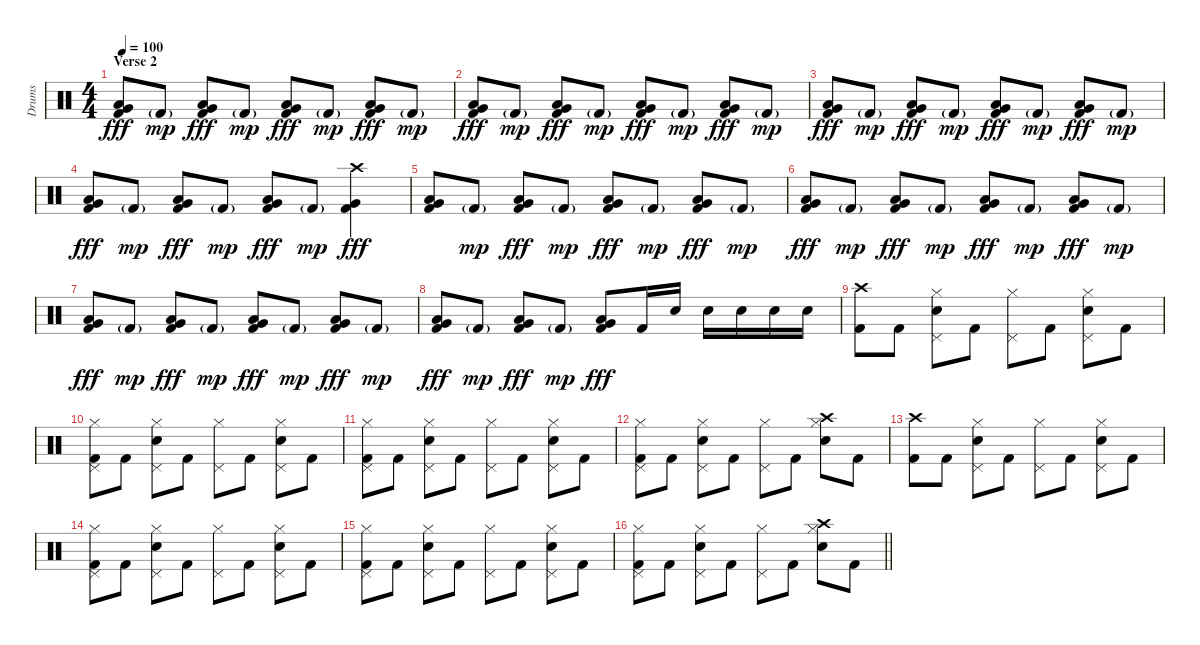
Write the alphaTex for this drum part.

\track ("Drums" "Drums") {instrument percussion}
\staff {score}
\articulation defaults
\ts (4 4)
\section ("" "Verse 2")
\tempo 100
\clef neutral
\ks c
("Low Tom (hit)" "Very Low Tom (hit)" "Kick (hit) 2").8{dy fff} "Kick (hit) 2"{g}.8{dy mp} ("Low Tom (hit)" "Very Low Tom (hit)" "Kick (hit) 2").8{dy fff} "Kick (hit) 2"{g}.8{dy mp} ("Low Tom (hit)" "Very Low Tom (hit)" "Kick (hit) 2").8{dy fff} "Kick (hit) 2"{g}.8{dy mp} ("Low Tom (hit)" "Very Low Tom (hit)" "Kick (hit) 2").8{dy fff} "Kick (hit) 2"{g}.8{dy mp} |
("Low Tom (hit)" "Very Low Tom (hit)" "Kick (hit) 2").8{dy fff} "Kick (hit) 2"{g}.8{dy mp} ("Low Tom (hit)" "Very Low Tom (hit)" "Kick (hit) 2").8{dy fff} "Kick (hit) 2"{g}.8{dy mp} ("Low Tom (hit)" "Very Low Tom (hit)" "Kick (hit) 2").8{dy fff} "Kick (hit) 2"{g}.8{dy mp} ("Low Tom (hit)" "Very Low Tom (hit)" "Kick (hit) 2").8{dy fff} "Kick (hit) 2"{g}.8{dy mp} |
("Low Tom (hit)" "Very Low Tom (hit)" "Kick (hit) 2").8{dy fff} "Kick (hit) 2"{g}.8{dy mp} ("Low Tom (hit)" "Very Low Tom (hit)" "Kick (hit) 2").8{dy fff} "Kick (hit) 2"{g}.8{dy mp} ("Low Tom (hit)" "Very Low Tom (hit)" "Kick (hit) 2").8{dy fff} "Kick (hit) 2"{g}.8{dy mp} ("Low Tom (hit)" "Very Low Tom (hit)" "Kick (hit) 2").8{dy fff} "Kick (hit) 2"{g}.8{dy mp} |
("Low Tom (hit)" "Very Low Tom (hit)" "Kick (hit) 2").8{dy fff} "Kick (hit) 2"{g}.8{dy mp} ("Low Tom (hit)" "Very Low Tom (hit)" "Kick (hit) 2").8{dy fff} "Kick (hit) 2"{g}.8{dy mp} ("Low Tom (hit)" "Very Low Tom (hit)" "Kick (hit) 2").8{dy fff} "Kick (hit) 2"{g}.8{dy mp} ("Crash high (hit)" "Very Low Tom (hit)" "Kick (hit) 2").4{dy fff} |
("Low Tom (hit)" "Very Low Tom (hit)" "Kick (hit) 2").8 "Kick (hit) 2"{g}.8{dy mp} ("Low Tom (hit)" "Very Low Tom (hit)" "Kick (hit) 2").8{dy fff} "Kick (hit) 2"{g}.8{dy mp} ("Low Tom (hit)" "Very Low Tom (hit)" "Kick (hit) 2").8{dy fff} "Kick (hit) 2"{g}.8{dy mp} ("Low Tom (hit)" "Very Low Tom (hit)" "Kick (hit) 2").8{dy fff} "Kick (hit) 2"{g}.8{dy mp} |
("Low Tom (hit)" "Very Low Tom (hit)" "Kick (hit) 2").8{dy fff} "Kick (hit) 2"{g}.8{dy mp} ("Low Tom (hit)" "Very Low Tom (hit)" "Kick (hit) 2").8{dy fff} "Kick (hit) 2"{g}.8{dy mp} ("Low Tom (hit)" "Very Low Tom (hit)" "Kick (hit) 2").8{dy fff} "Kick (hit) 2"{g}.8{dy mp} ("Low Tom (hit)" "Very Low Tom (hit)" "Kick (hit) 2").8{dy fff} "Kick (hit) 2"{g}.8{dy mp} |
("Low Tom (hit)" "Very Low Tom (hit)" "Kick (hit) 2").8{dy fff} "Kick (hit) 2"{g}.8{dy mp} ("Low Tom (hit)" "Very Low Tom (hit)" "Kick (hit) 2").8{dy fff} "Kick (hit) 2"{g}.8{dy mp} ("Low Tom (hit)" "Very Low Tom (hit)" "Kick (hit) 2").8{dy fff} "Kick (hit) 2"{g}.8{dy mp} ("Low Tom (hit)" "Very Low Tom (hit)" "Kick (hit) 2").8{dy fff} "Kick (hit) 2"{g}.8{dy mp} |
("Low Tom (hit)" "Very Low Tom (hit)" "Kick (hit) 2").8{dy fff} "Kick (hit) 2"{g}.8{dy mp} ("Low Tom (hit)" "Very Low Tom (hit)" "Kick (hit) 2").8{dy fff} "Kick (hit) 2"{g}.8{dy mp} ("Low Tom (hit)" "Very Low Tom (hit)" "Kick (hit) 2").8{dy fff} "Kick (hit) 2".16 "Electric Snare (hit)".16 "Electric Snare (hit)".16 "Electric Snare (hit)".16 "Electric Snare (hit)".16 "Electric Snare (hit)".16 |
("Crash high (hit)" "Kick (hit) 2").8 "Kick (hit) 2".8 ("Pedal Hi-Hat (hit)" "Hi-Hat (closed)" "Electric Snare (hit)").8 "Kick (hit) 2".8 ("Pedal Hi-Hat (hit)" "Hi-Hat (closed)").8 "Kick (hit) 2".8 ("Pedal Hi-Hat (hit)" "Hi-Hat (closed)" "Electric Snare (hit)").8 "Kick (hit) 2".8 |
("Pedal Hi-Hat (hit)" "Hi-Hat (closed)" "Kick (hit) 2").8 "Kick (hit) 2".8 ("Pedal Hi-Hat (hit)" "Hi-Hat (closed)" "Electric Snare (hit)").8 "Kick (hit) 2".8 ("Pedal Hi-Hat (hit)" "Hi-Hat (closed)").8 "Kick (hit) 2".8 ("Pedal Hi-Hat (hit)" "Hi-Hat (closed)" "Electric Snare (hit)").8 "Kick (hit) 2".8 |
("Pedal Hi-Hat (hit)" "Hi-Hat (closed)" "Kick (hit) 2").8 "Kick (hit) 2".8 ("Pedal Hi-Hat (hit)" "Hi-Hat (closed)" "Electric Snare (hit)").8 "Kick (hit) 2".8 ("Pedal Hi-Hat (hit)" "Hi-Hat (closed)").8 "Kick (hit) 2".8 ("Pedal Hi-Hat (hit)" "Hi-Hat (closed)" "Electric Snare (hit)").8 "Kick (hit) 2".8 |
("Pedal Hi-Hat (hit)" "Hi-Hat (closed)" "Kick (hit) 2").8 "Kick (hit) 2".8 ("Pedal Hi-Hat (hit)" "Hi-Hat (closed)" "Electric Snare (hit)").8 "Kick (hit) 2".8 ("Pedal Hi-Hat (hit)" "Hi-Hat (closed)").8 "Kick (hit) 2".8 ("Crash high (hit)" "Hi-Hat (closed)" "Electric Snare (hit)").8 "Kick (hit) 2".8 |
("Crash high (hit)" "Kick (hit) 2").8 "Kick (hit) 2".8 ("Pedal Hi-Hat (hit)" "Hi-Hat (closed)" "Electric Snare (hit)").8 "Kick (hit) 2".8 ("Pedal Hi-Hat (hit)" "Hi-Hat (closed)").8 "Kick (hit) 2".8 ("Pedal Hi-Hat (hit)" "Hi-Hat (closed)" "Electric Snare (hit)").8 "Kick (hit) 2".8 |
("Pedal Hi-Hat (hit)" "Hi-Hat (closed)" "Kick (hit) 2").8 "Kick (hit) 2".8 ("Pedal Hi-Hat (hit)" "Hi-Hat (closed)" "Electric Snare (hit)").8 "Kick (hit) 2".8 ("Pedal Hi-Hat (hit)" "Hi-Hat (closed)").8 "Kick (hit) 2".8 ("Pedal Hi-Hat (hit)" "Hi-Hat (closed)" "Electric Snare (hit)").8 "Kick (hit) 2".8 |
("Pedal Hi-Hat (hit)" "Hi-Hat (closed)" "Kick (hit) 2").8 "Kick (hit) 2".8 ("Pedal Hi-Hat (hit)" "Hi-Hat (closed)" "Electric Snare (hit)").8 "Kick (hit) 2".8 ("Pedal Hi-Hat (hit)" "Hi-Hat (closed)").8 "Kick (hit) 2".8 ("Pedal Hi-Hat (hit)" "Hi-Hat (closed)" "Electric Snare (hit)").8 "Kick (hit) 2".8 |
\barLineRight lightlight
("Pedal Hi-Hat (hit)" "Hi-Hat (closed)" "Kick (hit) 2").8 "Kick (hit) 2".8 ("Pedal Hi-Hat (hit)" "Hi-Hat (closed)" "Electric Snare (hit)").8 "Kick (hit) 2".8 ("Pedal Hi-Hat (hit)" "Hi-Hat (closed)").8 "Kick (hit) 2".8 ("Crash high (hit)" "Hi-Hat (closed)" "Electric Snare (hit)").8 "Kick (hit) 2".8
